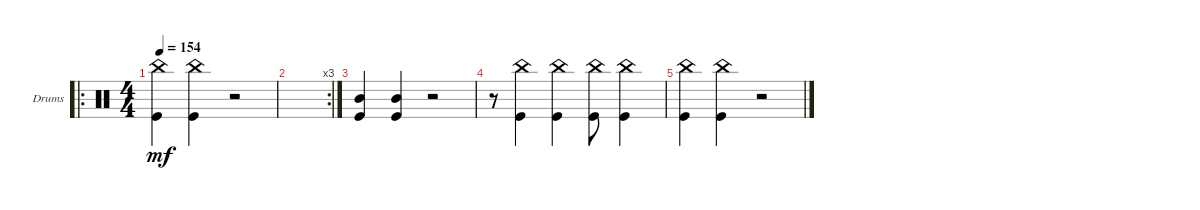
\bracketExtendMode groupsimilarinstruments
\firstSystemTrackNameOrientation horizontal
\otherSystemsTrackNameOrientation horizontal
\track ("Drumkit" "Drums") {instrument percussion}
\staff {score}
\articulation defaults
\ro
\ts (4 4)
\tempo 154
\clef neutral
\ks c
("Kick (hit)" "China (hit)").4{dy mf} ("Kick (hit)" "China (hit)").4 r.2 |
\rc 3
|
("Kick (hit)" "Mid Tom (hit)").4 ("Kick (hit)" "Mid Tom (hit)").4 r.2 |
r.8 ("Kick (hit)" "China (hit)").4 ("China (hit)" "Kick (hit)").4 ("Kick (hit)" "China (hit)").8 ("China (hit)" "Kick (hit)").4 |
("Kick (hit)" "China (hit)").4 ("Kick (hit)" "China (hit)").4 r.2
